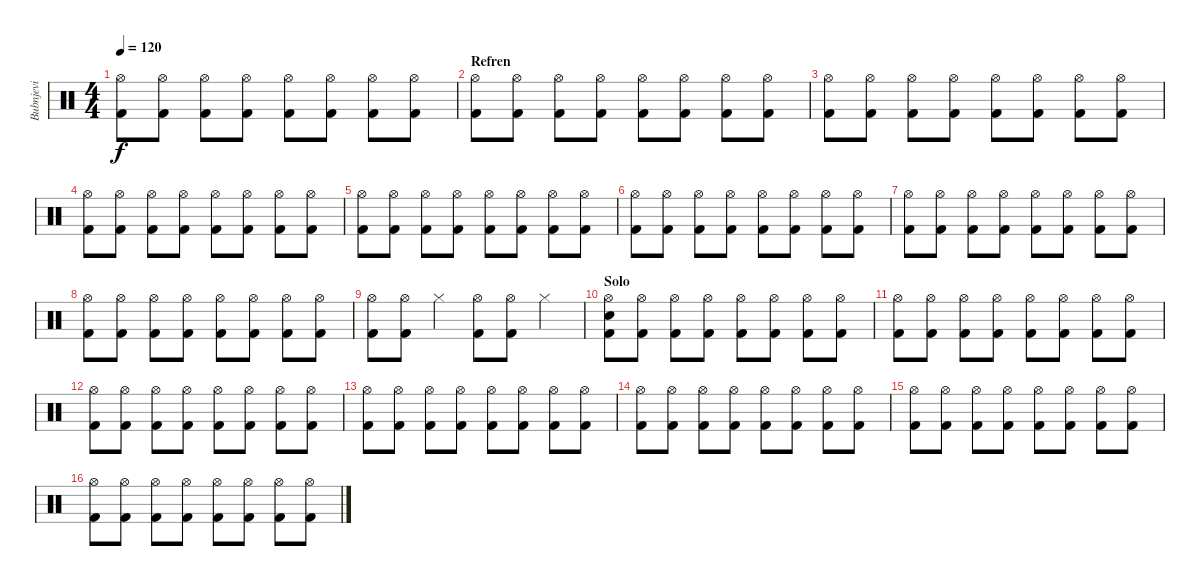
\track ("Bubnjevi" "Bubnjevi") {instrument percussion}
\staff {score}
\articulation defaults
\ts (4 4)
\tempo 120
\clef neutral
\ks c
("Hi-Hat (open)" "Kick (hit) 2").8{dy f} ("Hi-Hat (open)" "Kick (hit) 2").8 ("Hi-Hat (open)" "Kick (hit) 2").8 ("Hi-Hat (open)" "Kick (hit) 2").8 ("Hi-Hat (open)" "Kick (hit) 2").8 ("Hi-Hat (open)" "Kick (hit) 2").8 ("Hi-Hat (open)" "Kick (hit) 2").8 ("Hi-Hat (open)" "Kick (hit) 2").8 |
\section ("" "Refren")
("Hi-Hat (open)" "Kick (hit) 2").8 ("Hi-Hat (open)" "Kick (hit) 2").8 ("Hi-Hat (open)" "Kick (hit) 2").8 ("Hi-Hat (open)" "Kick (hit) 2").8 ("Hi-Hat (open)" "Kick (hit) 2").8 ("Hi-Hat (open)" "Kick (hit) 2").8 ("Hi-Hat (open)" "Kick (hit) 2").8 ("Hi-Hat (open)" "Kick (hit) 2").8 |
("Hi-Hat (open)" "Kick (hit) 2").8 ("Hi-Hat (open)" "Kick (hit) 2").8 ("Hi-Hat (open)" "Kick (hit) 2").8 ("Hi-Hat (open)" "Kick (hit) 2").8 ("Hi-Hat (open)" "Kick (hit) 2").8 ("Hi-Hat (open)" "Kick (hit) 2").8 ("Hi-Hat (open)" "Kick (hit) 2").8 ("Hi-Hat (open)" "Kick (hit) 2").8 |
("Hi-Hat (open)" "Kick (hit) 2").8 ("Hi-Hat (open)" "Kick (hit) 2").8 ("Hi-Hat (open)" "Kick (hit) 2").8 ("Hi-Hat (open)" "Kick (hit) 2").8 ("Hi-Hat (open)" "Kick (hit) 2").8 ("Hi-Hat (open)" "Kick (hit) 2").8 ("Hi-Hat (open)" "Kick (hit) 2").8 ("Hi-Hat (open)" "Kick (hit) 2").8 |
("Hi-Hat (open)" "Kick (hit) 2").8 ("Hi-Hat (open)" "Kick (hit) 2").8 ("Hi-Hat (open)" "Kick (hit) 2").8 ("Hi-Hat (open)" "Kick (hit) 2").8 ("Hi-Hat (open)" "Kick (hit) 2").8 ("Hi-Hat (open)" "Kick (hit) 2").8 ("Hi-Hat (open)" "Kick (hit) 2").8 ("Hi-Hat (open)" "Kick (hit) 2").8 |
("Hi-Hat (open)" "Kick (hit) 2").8 ("Hi-Hat (open)" "Kick (hit) 2").8 ("Hi-Hat (open)" "Kick (hit) 2").8 ("Hi-Hat (open)" "Kick (hit) 2").8 ("Hi-Hat (open)" "Kick (hit) 2").8 ("Hi-Hat (open)" "Kick (hit) 2").8 ("Hi-Hat (open)" "Kick (hit) 2").8 ("Hi-Hat (open)" "Kick (hit) 2").8 |
("Hi-Hat (open)" "Kick (hit) 2").8 ("Hi-Hat (open)" "Kick (hit) 2").8 ("Hi-Hat (open)" "Kick (hit) 2").8 ("Hi-Hat (open)" "Kick (hit) 2").8 ("Hi-Hat (open)" "Kick (hit) 2").8 ("Hi-Hat (open)" "Kick (hit) 2").8 ("Hi-Hat (open)" "Kick (hit) 2").8 ("Hi-Hat (open)" "Kick (hit) 2").8 |
("Hi-Hat (open)" "Kick (hit) 2").8 ("Hi-Hat (open)" "Kick (hit) 2").8 ("Hi-Hat (open)" "Kick (hit) 2").8 ("Hi-Hat (open)" "Kick (hit) 2").8 ("Hi-Hat (open)" "Kick (hit) 2").8 ("Hi-Hat (open)" "Kick (hit) 2").8 ("Hi-Hat (open)" "Kick (hit) 2").8 ("Hi-Hat (open)" "Kick (hit) 2").8 |
("Hi-Hat (open)" "Kick (hit) 2").8 ("Hi-Hat (open)" "Kick (hit) 2").8 "Hi-Hat (closed)".4 ("Kick (hit) 2" "Hi-Hat (open)").8 ("Hi-Hat (open)" "Kick (hit) 2").8 "Hi-Hat (closed)".4 |
\section ("" "Solo")
("Hi-Hat (open)" "Kick (hit) 2" "Electric Snare (hit)").8 ("Hi-Hat (open)" "Kick (hit) 2").8 ("Hi-Hat (open)" "Kick (hit) 2").8 ("Hi-Hat (open)" "Kick (hit) 2").8 ("Hi-Hat (open)" "Kick (hit) 2").8 ("Hi-Hat (open)" "Kick (hit) 2").8 ("Hi-Hat (open)" "Kick (hit) 2").8 ("Hi-Hat (open)" "Kick (hit) 2").8 |
("Hi-Hat (open)" "Kick (hit) 2").8 ("Hi-Hat (open)" "Kick (hit) 2").8 ("Hi-Hat (open)" "Kick (hit) 2").8 ("Hi-Hat (open)" "Kick (hit) 2").8 ("Hi-Hat (open)" "Kick (hit) 2").8 ("Hi-Hat (open)" "Kick (hit) 2").8 ("Hi-Hat (open)" "Kick (hit) 2").8 ("Hi-Hat (open)" "Kick (hit) 2").8 |
("Hi-Hat (open)" "Kick (hit) 2").8 ("Hi-Hat (open)" "Kick (hit) 2").8 ("Hi-Hat (open)" "Kick (hit) 2").8 ("Hi-Hat (open)" "Kick (hit) 2").8 ("Hi-Hat (open)" "Kick (hit) 2").8 ("Hi-Hat (open)" "Kick (hit) 2").8 ("Hi-Hat (open)" "Kick (hit) 2").8 ("Hi-Hat (open)" "Kick (hit) 2").8 |
("Hi-Hat (open)" "Kick (hit) 2").8 ("Hi-Hat (open)" "Kick (hit) 2").8 ("Hi-Hat (open)" "Kick (hit) 2").8 ("Hi-Hat (open)" "Kick (hit) 2").8 ("Hi-Hat (open)" "Kick (hit) 2").8 ("Hi-Hat (open)" "Kick (hit) 2").8 ("Hi-Hat (open)" "Kick (hit) 2").8 ("Hi-Hat (open)" "Kick (hit) 2").8 |
("Hi-Hat (open)" "Kick (hit) 2").8 ("Hi-Hat (open)" "Kick (hit) 2").8 ("Hi-Hat (open)" "Kick (hit) 2").8 ("Hi-Hat (open)" "Kick (hit) 2").8 ("Hi-Hat (open)" "Kick (hit) 2").8 ("Hi-Hat (open)" "Kick (hit) 2").8 ("Hi-Hat (open)" "Kick (hit) 2").8 ("Hi-Hat (open)" "Kick (hit) 2").8 |
("Hi-Hat (open)" "Kick (hit) 2").8 ("Hi-Hat (open)" "Kick (hit) 2").8 ("Hi-Hat (open)" "Kick (hit) 2").8 ("Hi-Hat (open)" "Kick (hit) 2").8 ("Hi-Hat (open)" "Kick (hit) 2").8 ("Hi-Hat (open)" "Kick (hit) 2").8 ("Hi-Hat (open)" "Kick (hit) 2").8 ("Hi-Hat (open)" "Kick (hit) 2").8 |
("Hi-Hat (open)" "Kick (hit) 2").8 ("Hi-Hat (open)" "Kick (hit) 2").8 ("Hi-Hat (open)" "Kick (hit) 2").8 ("Hi-Hat (open)" "Kick (hit) 2").8 ("Hi-Hat (open)" "Kick (hit) 2").8 ("Hi-Hat (open)" "Kick (hit) 2").8 ("Hi-Hat (open)" "Kick (hit) 2").8 ("Hi-Hat (open)" "Kick (hit) 2").8
